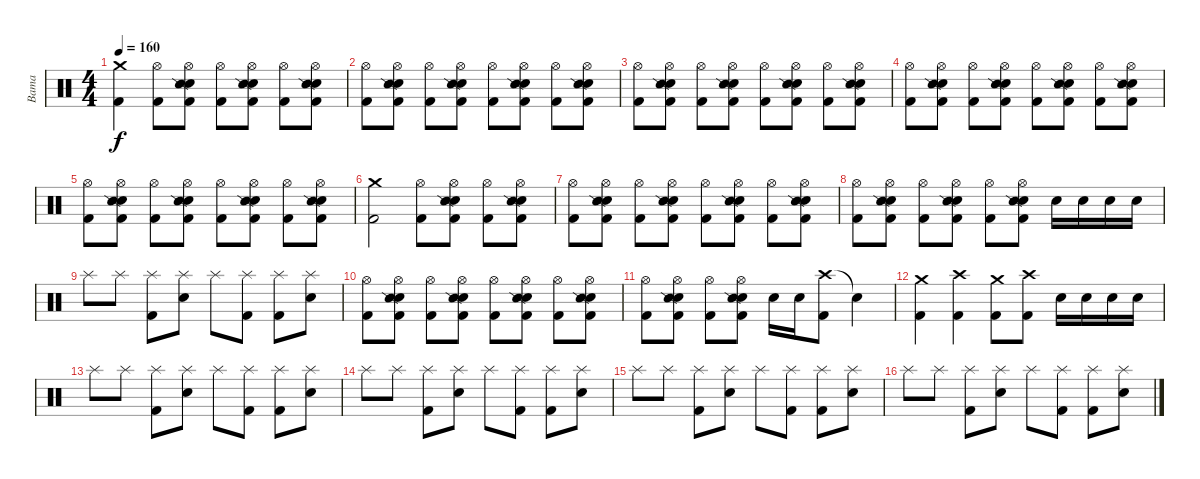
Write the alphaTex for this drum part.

\track ("Bama" "Bama") {instrument percussion}
\staff {score}
\articulation defaults
\ts (4 4)
\tempo 160
\clef neutral
\ks c
("Crash medium (hit)" "Kick (hit) 2").4{dy f} ("Hi-Hat (open)" "Kick (hit) 2").8 ("Hi-Hat (open)" "Electric Snare (hit)" "Snare (side stick) 2" "Kick (hit) 2").8 ("Hi-Hat (open)" "Kick (hit) 2").8 ("Hi-Hat (open)" "Electric Snare (hit)" "Snare (side stick) 2" "Kick (hit) 2").8 ("Hi-Hat (open)" "Kick (hit) 2").8 ("Hi-Hat (open)" "Electric Snare (hit)" "Snare (side stick) 2" "Kick (hit) 2").8 |
("Hi-Hat (open)" "Kick (hit) 2").8 ("Hi-Hat (open)" "Electric Snare (hit)" "Snare (side stick) 2" "Kick (hit) 2").8 ("Hi-Hat (open)" "Kick (hit) 2").8 ("Hi-Hat (open)" "Electric Snare (hit)" "Snare (side stick) 2" "Kick (hit) 2").8 ("Hi-Hat (open)" "Kick (hit) 2").8 ("Hi-Hat (open)" "Electric Snare (hit)" "Snare (side stick) 2" "Kick (hit) 2").8 ("Hi-Hat (open)" "Kick (hit) 2").8 ("Hi-Hat (open)" "Electric Snare (hit)" "Snare (side stick) 2" "Kick (hit) 2").8 |
("Hi-Hat (open)" "Kick (hit) 2").8 ("Hi-Hat (open)" "Electric Snare (hit)" "Snare (side stick) 2" "Kick (hit) 2").8 ("Hi-Hat (open)" "Kick (hit) 2").8 ("Hi-Hat (open)" "Electric Snare (hit)" "Snare (side stick) 2" "Kick (hit) 2").8 ("Hi-Hat (open)" "Kick (hit) 2").8 ("Hi-Hat (open)" "Electric Snare (hit)" "Snare (side stick) 2" "Kick (hit) 2").8 ("Hi-Hat (open)" "Kick (hit) 2").8 ("Hi-Hat (open)" "Electric Snare (hit)" "Snare (side stick) 2" "Kick (hit) 2").8 |
("Hi-Hat (open)" "Kick (hit) 2").8 ("Hi-Hat (open)" "Electric Snare (hit)" "Snare (side stick) 2" "Kick (hit) 2").8 ("Hi-Hat (open)" "Kick (hit) 2").8 ("Hi-Hat (open)" "Electric Snare (hit)" "Snare (side stick) 2" "Kick (hit) 2").8 ("Hi-Hat (open)" "Kick (hit) 2").8 ("Hi-Hat (open)" "Electric Snare (hit)" "Snare (side stick) 2" "Kick (hit) 2").8 ("Hi-Hat (open)" "Kick (hit) 2").8 ("Hi-Hat (open)" "Electric Snare (hit)" "Snare (side stick) 2" "Kick (hit) 2").8 |
("Hi-Hat (open)" "Kick (hit) 2").8 ("Hi-Hat (open)" "Electric Snare (hit)" "Snare (side stick) 2" "Kick (hit) 2").8 ("Hi-Hat (open)" "Kick (hit) 2").8 ("Hi-Hat (open)" "Electric Snare (hit)" "Snare (side stick) 2" "Kick (hit) 2").8 ("Hi-Hat (open)" "Kick (hit) 2").8 ("Hi-Hat (open)" "Electric Snare (hit)" "Snare (side stick) 2" "Kick (hit) 2").8 ("Hi-Hat (open)" "Kick (hit) 2").8 ("Hi-Hat (open)" "Electric Snare (hit)" "Snare (side stick) 2" "Kick (hit) 2").8 |
("Crash medium (hit)" "Kick (hit) 2").2 ("Hi-Hat (open)" "Kick (hit) 2").8 ("Hi-Hat (open)" "Electric Snare (hit)" "Snare (side stick) 2" "Kick (hit) 2").8 ("Hi-Hat (open)" "Kick (hit) 2").8 ("Hi-Hat (open)" "Electric Snare (hit)" "Snare (side stick) 2" "Kick (hit) 2").8 |
("Hi-Hat (open)" "Kick (hit) 2").8 ("Hi-Hat (open)" "Electric Snare (hit)" "Snare (side stick) 2" "Kick (hit) 2").8 ("Hi-Hat (open)" "Kick (hit) 2").8 ("Hi-Hat (open)" "Electric Snare (hit)" "Snare (side stick) 2" "Kick (hit) 2").8 ("Hi-Hat (open)" "Kick (hit) 2").8 ("Hi-Hat (open)" "Electric Snare (hit)" "Snare (side stick) 2" "Kick (hit) 2").8 ("Hi-Hat (open)" "Kick (hit) 2").8 ("Hi-Hat (open)" "Electric Snare (hit)" "Snare (side stick) 2" "Kick (hit) 2").8 |
("Hi-Hat (open)" "Kick (hit) 2").8 ("Hi-Hat (open)" "Electric Snare (hit)" "Snare (side stick) 2" "Kick (hit) 2").8 ("Hi-Hat (open)" "Kick (hit) 2").8 ("Hi-Hat (open)" "Electric Snare (hit)" "Snare (side stick) 2" "Kick (hit) 2").8 ("Hi-Hat (open)" "Kick (hit) 2").8 ("Hi-Hat (open)" "Electric Snare (hit)" "Snare (side stick) 2" "Kick (hit) 2").8 "Electric Snare (hit)".16 "Electric Snare (hit)".16 "Electric Snare (hit)".16 "Electric Snare (hit)".16 |
"Splash (hit)".8 "Splash (hit)".8 ("Splash (hit)" "Kick (hit) 2").8 ("Splash (hit)" "Electric Snare (hit)").8 "Splash (hit)".8 ("Splash (hit)" "Kick (hit) 2").8 ("Splash (hit)" "Kick (hit) 2").8 ("Splash (hit)" "Electric Snare (hit)").8 |
("Hi-Hat (open)" "Kick (hit) 2").8 ("Hi-Hat (open)" "Electric Snare (hit)" "Snare (side stick) 2" "Kick (hit) 2").8 ("Hi-Hat (open)" "Kick (hit) 2").8 ("Hi-Hat (open)" "Electric Snare (hit)" "Snare (side stick) 2" "Kick (hit) 2").8 ("Hi-Hat (open)" "Kick (hit) 2").8 ("Hi-Hat (open)" "Electric Snare (hit)" "Snare (side stick) 2" "Kick (hit) 2").8 ("Hi-Hat (open)" "Kick (hit) 2").8 ("Hi-Hat (open)" "Electric Snare (hit)" "Snare (side stick) 2" "Kick (hit) 2").8 |
("Hi-Hat (open)" "Kick (hit) 2").8 ("Hi-Hat (open)" "Electric Snare (hit)" "Snare (side stick) 2" "Kick (hit) 2").8 ("Hi-Hat (open)" "Kick (hit) 2").8 ("Hi-Hat (open)" "Electric Snare (hit)" "Snare (side stick) 2" "Kick (hit) 2").8 "Electric Snare (hit)".16 "Electric Snare (hit)".16 ("Crash high (hit)" "Kick (hit) 2").8 "Snare (hit)"{t}.4 |
("Crash medium (hit)" "Kick (hit) 2").4 ("Crash high (hit)" "Kick (hit) 2").4 ("Crash medium (hit)" "Kick (hit) 2").8 ("Crash high (hit)" "Kick (hit) 2").8 "Electric Snare (hit)".16 "Electric Snare (hit)".16 "Electric Snare (hit)".16 "Electric Snare (hit)".16 |
"Splash (hit)".8 "Splash (hit)".8 ("Splash (hit)" "Kick (hit) 2").8 ("Splash (hit)" "Electric Snare (hit)").8 "Splash (hit)".8 ("Splash (hit)" "Kick (hit) 2").8 ("Splash (hit)" "Kick (hit) 2").8 ("Splash (hit)" "Electric Snare (hit)").8 |
"Splash (hit)".8 "Splash (hit)".8 ("Splash (hit)" "Kick (hit) 2").8 ("Splash (hit)" "Electric Snare (hit)").8 "Splash (hit)".8 ("Splash (hit)" "Kick (hit) 2").8 ("Splash (hit)" "Kick (hit) 2").8 ("Splash (hit)" "Electric Snare (hit)").8 |
"Splash (hit)".8 "Splash (hit)".8 ("Splash (hit)" "Kick (hit) 2").8 ("Splash (hit)" "Electric Snare (hit)").8 "Splash (hit)".8 ("Splash (hit)" "Kick (hit) 2").8 ("Splash (hit)" "Kick (hit) 2").8 ("Splash (hit)" "Electric Snare (hit)").8 |
"Splash (hit)".8 "Splash (hit)".8 ("Splash (hit)" "Kick (hit) 2").8 ("Splash (hit)" "Electric Snare (hit)").8 "Splash (hit)".8 ("Splash (hit)" "Kick (hit) 2").8 ("Splash (hit)" "Kick (hit) 2").8 ("Splash (hit)" "Electric Snare (hit)").8
